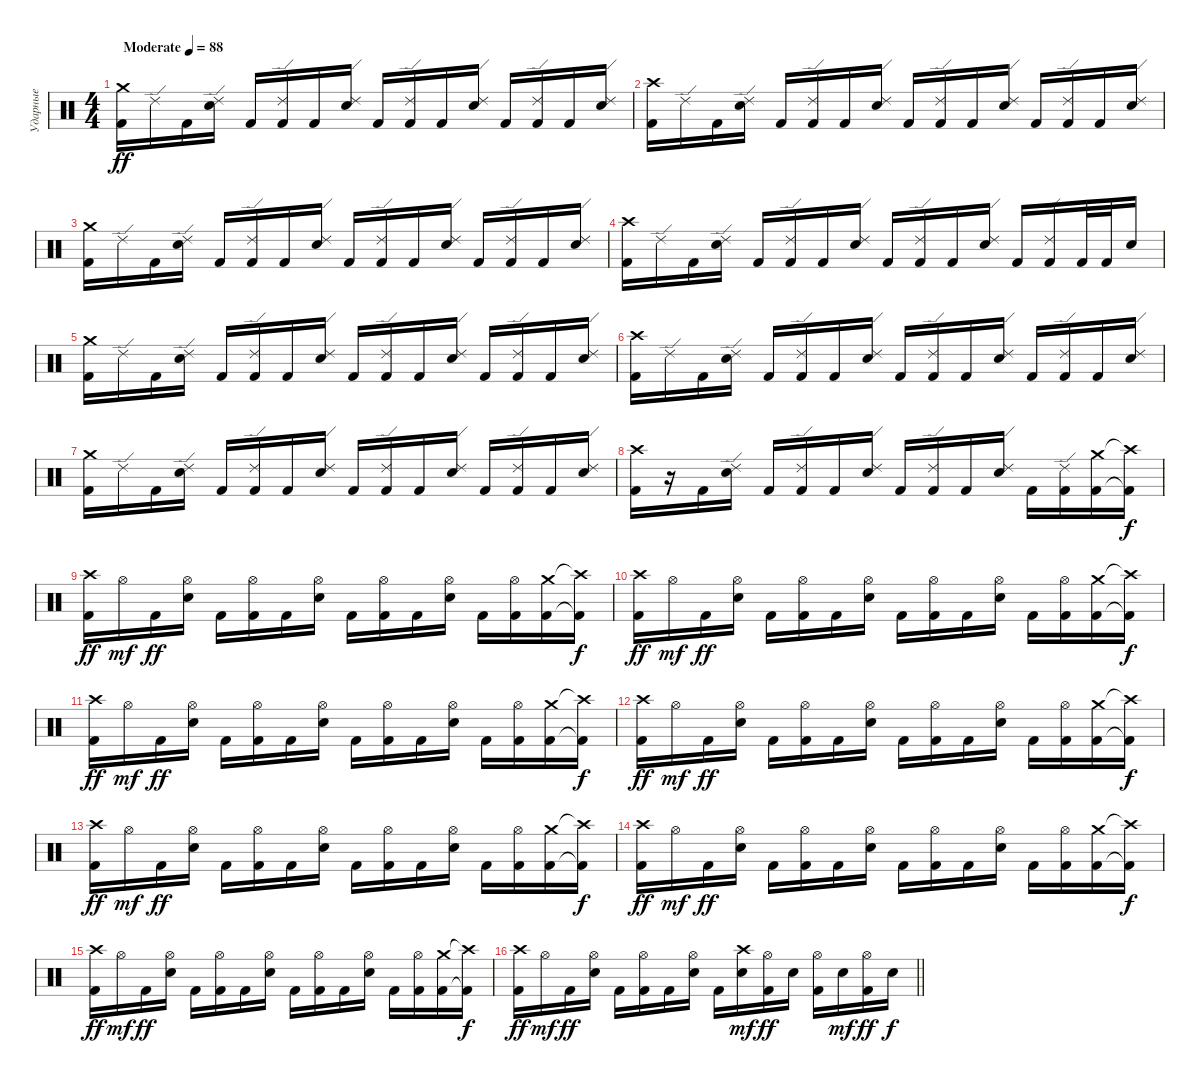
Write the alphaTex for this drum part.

\track ("Ударные" "Ударные") {instrument percussion}
\staff {score}
\articulation defaults
\ts (4 4)
\tempo (88 "Moderate")
\clef neutral
\ks c
("Crash medium (hit)" "Kick (hit) 2").16{dy ff} "Ride (edge) 2".16 "Kick (hit) 2".16 ("Ride (edge) 2" "Snare (hit) 2").16 "Kick (hit) 2".16 ("Ride (edge) 2" "Kick (hit) 2").16 "Kick (hit) 2".16 ("Ride (edge) 2" "Snare (hit) 2").16 "Kick (hit) 2".16 ("Ride (edge) 2" "Kick (hit) 2").16 "Kick (hit) 2".16 ("Ride (edge) 2" "Snare (hit) 2").16 "Kick (hit) 2".16 ("Ride (edge) 2" "Kick (hit) 2").16 "Kick (hit) 2".16 ("Ride (edge) 2" "Snare (hit) 2").16 |
("Crash high (hit)" "Kick (hit) 2").16 "Ride (edge) 2".16 "Kick (hit) 2".16 ("Ride (edge) 2" "Snare (hit) 2").16 "Kick (hit) 2".16 ("Ride (edge) 2" "Kick (hit) 2").16 "Kick (hit) 2".16 ("Ride (edge) 2" "Snare (hit) 2").16 "Kick (hit) 2".16 ("Ride (edge) 2" "Kick (hit) 2").16 "Kick (hit) 2".16 ("Ride (edge) 2" "Snare (hit) 2").16 "Kick (hit) 2".16 ("Ride (edge) 2" "Kick (hit) 2").16 "Kick (hit) 2".16 ("Ride (edge) 2" "Snare (hit) 2").16 |
("Crash medium (hit)" "Kick (hit) 2").16 "Ride (edge) 2".16 "Kick (hit) 2".16 ("Ride (edge) 2" "Snare (hit) 2").16 "Kick (hit) 2".16 ("Ride (edge) 2" "Kick (hit) 2").16 "Kick (hit) 2".16 ("Ride (edge) 2" "Snare (hit) 2").16 "Kick (hit) 2".16 ("Ride (edge) 2" "Kick (hit) 2").16 "Kick (hit) 2".16 ("Ride (edge) 2" "Snare (hit) 2").16 "Kick (hit) 2".16 ("Ride (edge) 2" "Kick (hit) 2").16 "Kick (hit) 2".16 ("Ride (edge) 2" "Snare (hit) 2").16 |
("Crash high (hit)" "Kick (hit) 2").16 "Ride (edge) 2".16 "Kick (hit) 2".16 ("Ride (edge) 2" "Snare (hit) 2").16 "Kick (hit) 2".16 ("Ride (edge) 2" "Kick (hit) 2").16 "Kick (hit) 2".16 ("Ride (edge) 2" "Snare (hit) 2").16 "Kick (hit) 2".16 ("Ride (edge) 2" "Kick (hit) 2").16 "Kick (hit) 2".16 ("Ride (edge) 2" "Snare (hit) 2").16 "Kick (hit) 2".16 ("Ride (edge) 2" "Kick (hit) 2").16 "Kick (hit) 2".32 "Kick (hit) 2".32 "Snare (hit) 2".16 |
("Crash medium (hit)" "Kick (hit) 2").16 "Ride (edge) 2".16 "Kick (hit) 2".16 ("Ride (edge) 2" "Snare (hit) 2").16 "Kick (hit) 2".16 ("Ride (edge) 2" "Kick (hit) 2").16 "Kick (hit) 2".16 ("Ride (edge) 2" "Snare (hit) 2").16 "Kick (hit) 2".16 ("Ride (edge) 2" "Kick (hit) 2").16 "Kick (hit) 2".16 ("Ride (edge) 2" "Snare (hit) 2").16 "Kick (hit) 2".16 ("Ride (edge) 2" "Kick (hit) 2").16 "Kick (hit) 2".16 ("Ride (edge) 2" "Snare (hit) 2").16 |
("Crash high (hit)" "Kick (hit) 2").16 "Ride (edge) 2".16 "Kick (hit) 2".16 ("Ride (edge) 2" "Snare (hit) 2").16 "Kick (hit) 2".16 ("Ride (edge) 2" "Kick (hit) 2").16 "Kick (hit) 2".16 ("Ride (edge) 2" "Snare (hit) 2").16 "Kick (hit) 2".16 ("Ride (edge) 2" "Kick (hit) 2").16 "Kick (hit) 2".16 ("Ride (edge) 2" "Snare (hit) 2").16 "Kick (hit) 2".16 ("Ride (edge) 2" "Kick (hit) 2").16 "Kick (hit) 2".16 ("Ride (edge) 2" "Snare (hit) 2").16 |
("Crash medium (hit)" "Kick (hit) 2").16 "Ride (edge) 2".16 "Kick (hit) 2".16 ("Ride (edge) 2" "Snare (hit) 2").16 "Kick (hit) 2".16 ("Ride (edge) 2" "Kick (hit) 2").16 "Kick (hit) 2".16 ("Ride (edge) 2" "Snare (hit) 2").16 "Kick (hit) 2".16 ("Ride (edge) 2" "Kick (hit) 2").16 "Kick (hit) 2".16 ("Ride (edge) 2" "Snare (hit) 2").16 "Kick (hit) 2".16 ("Ride (edge) 2" "Kick (hit) 2").16 "Kick (hit) 2".16 ("Ride (edge) 2" "Snare (hit) 2").16 |
("Crash high (hit)" "Kick (hit) 2").16 r.16 "Kick (hit) 2".16 ("Ride (edge) 2" "Snare (hit) 2").16 "Kick (hit) 2".16 ("Ride (edge) 2" "Kick (hit) 2").16 "Kick (hit) 2".16 ("Ride (edge) 2" "Snare (hit) 2").16 "Kick (hit) 2".16 ("Ride (edge) 2" "Kick (hit) 2").16 "Kick (hit) 2".16 ("Ride (edge) 2" "Snare (hit) 2").16 "Kick (hit) 2".16 ("Ride (edge) 2" "Kick (hit) 2").16 ("Crash medium (hit)" "Kick (hit) 2").16 ("Crash high (hit)"{t} "Kick (hit) 2"{t}).16{dy f} |
("Crash high (hit)" "Kick (hit) 2").16{dy ff} "Hi-Hat (open)".16{dy mf} "Kick (hit) 2".16{dy ff} ("Hi-Hat (open)" "Snare (hit) 2").16 "Kick (hit) 2".16 ("Hi-Hat (open)" "Kick (hit) 2").16 "Kick (hit) 2".16 ("Hi-Hat (open)" "Snare (hit) 2").16 "Kick (hit) 2".16 ("Hi-Hat (open)" "Kick (hit) 2").16 "Kick (hit) 2".16 ("Hi-Hat (open)" "Snare (hit) 2").16 "Kick (hit) 2".16 ("Hi-Hat (open)" "Kick (hit) 2").16 ("Crash medium (hit)" "Kick (hit) 2").16 ("Crash high (hit)"{t} "Kick (hit) 2"{t}).16{dy f} |
("Crash high (hit)" "Kick (hit) 2").16{dy ff} "Hi-Hat (open)".16{dy mf} "Kick (hit) 2".16{dy ff} ("Hi-Hat (open)" "Snare (hit) 2").16 "Kick (hit) 2".16 ("Hi-Hat (open)" "Kick (hit) 2").16 "Kick (hit) 2".16 ("Hi-Hat (open)" "Snare (hit) 2").16 "Kick (hit) 2".16 ("Hi-Hat (open)" "Kick (hit) 2").16 "Kick (hit) 2".16 ("Hi-Hat (open)" "Snare (hit) 2").16 "Kick (hit) 2".16 ("Hi-Hat (open)" "Kick (hit) 2").16 ("Crash medium (hit)" "Kick (hit) 2").16 ("Crash high (hit)"{t} "Kick (hit) 2"{t}).16{dy f} |
("Crash high (hit)" "Kick (hit) 2").16{dy ff} "Hi-Hat (open)".16{dy mf} "Kick (hit) 2".16{dy ff} ("Hi-Hat (open)" "Snare (hit) 2").16 "Kick (hit) 2".16 ("Hi-Hat (open)" "Kick (hit) 2").16 "Kick (hit) 2".16 ("Hi-Hat (open)" "Snare (hit) 2").16 "Kick (hit) 2".16 ("Hi-Hat (open)" "Kick (hit) 2").16 "Kick (hit) 2".16 ("Hi-Hat (open)" "Snare (hit) 2").16 "Kick (hit) 2".16 ("Hi-Hat (open)" "Kick (hit) 2").16 ("Crash medium (hit)" "Kick (hit) 2").16 ("Crash high (hit)"{t} "Kick (hit) 2"{t}).16{dy f} |
("Crash high (hit)" "Kick (hit) 2").16{dy ff} "Hi-Hat (open)".16{dy mf} "Kick (hit) 2".16{dy ff} ("Hi-Hat (open)" "Snare (hit) 2").16 "Kick (hit) 2".16 ("Hi-Hat (open)" "Kick (hit) 2").16 "Kick (hit) 2".16 ("Hi-Hat (open)" "Snare (hit) 2").16 "Kick (hit) 2".16 ("Hi-Hat (open)" "Kick (hit) 2").16 "Kick (hit) 2".16 ("Hi-Hat (open)" "Snare (hit) 2").16 "Kick (hit) 2".16 ("Hi-Hat (open)" "Kick (hit) 2").16 ("Crash medium (hit)" "Kick (hit) 2").16 ("Crash high (hit)"{t} "Kick (hit) 2"{t}).16{dy f} |
("Crash high (hit)" "Kick (hit) 2").16{dy ff} "Hi-Hat (open)".16{dy mf} "Kick (hit) 2".16{dy ff} ("Hi-Hat (open)" "Snare (hit) 2").16 "Kick (hit) 2".16 ("Hi-Hat (open)" "Kick (hit) 2").16 "Kick (hit) 2".16 ("Hi-Hat (open)" "Snare (hit) 2").16 "Kick (hit) 2".16 ("Hi-Hat (open)" "Kick (hit) 2").16 "Kick (hit) 2".16 ("Hi-Hat (open)" "Snare (hit) 2").16 "Kick (hit) 2".16 ("Hi-Hat (open)" "Kick (hit) 2").16 ("Crash medium (hit)" "Kick (hit) 2").16 ("Crash high (hit)"{t} "Kick (hit) 2"{t}).16{dy f} |
("Crash high (hit)" "Kick (hit) 2").16{dy ff} "Hi-Hat (open)".16{dy mf} "Kick (hit) 2".16{dy ff} ("Hi-Hat (open)" "Snare (hit) 2").16 "Kick (hit) 2".16 ("Hi-Hat (open)" "Kick (hit) 2").16 "Kick (hit) 2".16 ("Hi-Hat (open)" "Snare (hit) 2").16 "Kick (hit) 2".16 ("Hi-Hat (open)" "Kick (hit) 2").16 "Kick (hit) 2".16 ("Hi-Hat (open)" "Snare (hit) 2").16 "Kick (hit) 2".16 ("Hi-Hat (open)" "Kick (hit) 2").16 ("Crash medium (hit)" "Kick (hit) 2").16 ("Crash high (hit)"{t} "Kick (hit) 2"{t}).16{dy f} |
("Crash high (hit)" "Kick (hit) 2").16{dy ff} "Hi-Hat (open)".16{dy mf} "Kick (hit) 2".16{dy ff} ("Hi-Hat (open)" "Snare (hit) 2").16 "Kick (hit) 2".16 ("Hi-Hat (open)" "Kick (hit) 2").16 "Kick (hit) 2".16 ("Hi-Hat (open)" "Snare (hit) 2").16 "Kick (hit) 2".16 ("Hi-Hat (open)" "Kick (hit) 2").16 "Kick (hit) 2".16 ("Hi-Hat (open)" "Snare (hit) 2").16 "Kick (hit) 2".16 ("Hi-Hat (open)" "Kick (hit) 2").16 ("Crash medium (hit)" "Kick (hit) 2").16 ("Crash high (hit)"{t} "Kick (hit) 2"{t}).16{dy f} |
\barLineRight lightlight
("Crash high (hit)" "Kick (hit) 2").16{dy ff} "Hi-Hat (open)".16{dy mf} "Kick (hit) 2".16{dy ff} ("Hi-Hat (open)" "Snare (hit) 2").16 "Kick (hit) 2".16 ("Hi-Hat (open)" "Kick (hit) 2").16 "Kick (hit) 2".16 ("Hi-Hat (open)" "Snare (hit) 2").16 "Kick (hit) 2".16 ("Crash high (hit)" "Snare (hit) 2").16{dy mf} ("Hi-Hat (open)" "Kick (hit) 2").16{dy ff} "Snare (hit) 2".16 ("Hi-Hat (open)" "Kick (hit) 2").16 "Snare (hit) 2".16{dy mf} ("Hi-Hat (open)" "Kick (hit) 2").16{dy ff} "Snare (hit) 2".16{dy f}
